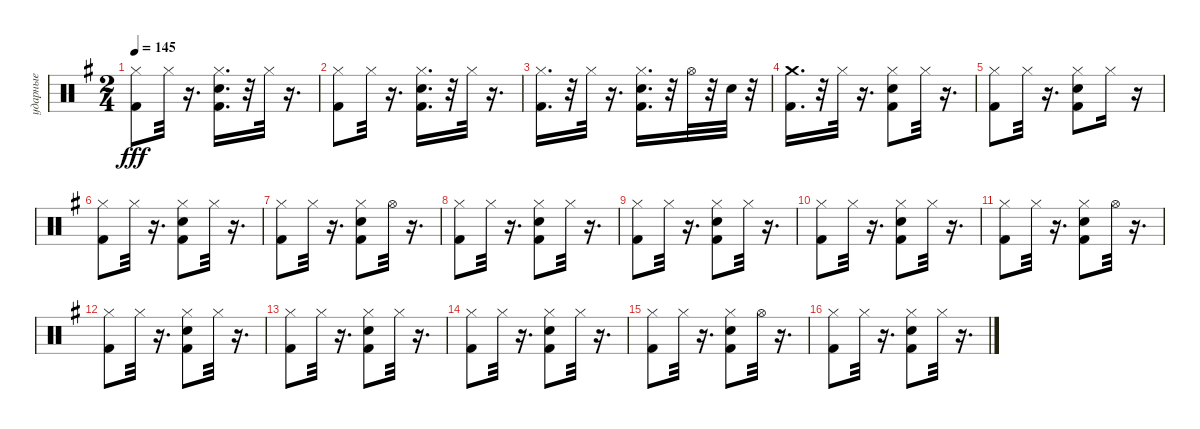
\track ("ударные" "ударные") {instrument percussion}
\staff {score}
\articulation defaults
\ts (2 4)
\tempo 145
\clef neutral
\ks eminor
("Kick (hit) 2" "Hi-Hat (closed)").8{dy fff} "Hi-Hat (closed)".32 r.16{d} ("Kick (hit) 2" "Hi-Hat (closed)" "Snare (hit) 2").16{d} r.32 "Hi-Hat (closed)".32 r.16{d} |
("Kick (hit) 2" "Hi-Hat (closed)").8 "Hi-Hat (closed)".32 r.16{d} ("Snare (hit) 2" "Kick (hit) 2" "Hi-Hat (closed)").16{d} r.32 "Hi-Hat (closed)".32 r.16{d} |
("Kick (hit) 2" "Hi-Hat (closed)").16{d} r.32 "Hi-Hat (closed)".32 r.16{d} ("Snare (hit) 2" "Kick (hit) 2" "Hi-Hat (closed)").16{d} r.32 "Hi-Hat (open)".32 r.32 "Snare (hit) 2".32 r.32 |
("Kick (hit) 2" "Crash medium (hit)").16{d} r.32 "Hi-Hat (closed)".32 r.16{d} ("Snare (hit) 2" "Hi-Hat (closed)" "Kick (hit) 2").8 "Hi-Hat (closed)".32 r.16{d} |
("Kick (hit) 2" "Hi-Hat (closed)").8 "Hi-Hat (closed)".32 r.16{d} ("Snare (hit) 2" "Kick (hit) 2" "Hi-Hat (closed)").8 "Hi-Hat (closed)".16 r.16 |
("Kick (hit) 2" "Hi-Hat (closed)").8 "Hi-Hat (closed)".32 r.16{d} ("Snare (hit) 2" "Kick (hit) 2" "Hi-Hat (closed)").8 "Hi-Hat (closed)".32 r.16{d} |
("Kick (hit) 2" "Hi-Hat (closed)").8 "Hi-Hat (closed)".32 r.16{d} ("Kick (hit) 2" "Snare (hit) 2" "Hi-Hat (closed)").8 "Hi-Hat (open)".32 r.16{d} |
("Kick (hit) 2" "Hi-Hat (closed)").8 "Hi-Hat (closed)".32 r.16{d} ("Snare (hit) 2" "Kick (hit) 2" "Hi-Hat (closed)").8 "Hi-Hat (closed)".32 r.16{d} |
("Kick (hit) 2" "Hi-Hat (closed)").8 "Hi-Hat (closed)".32 r.16{d} ("Snare (hit) 2" "Kick (hit) 2" "Hi-Hat (closed)").8 "Hi-Hat (closed)".32 r.16{d} |
("Kick (hit) 2" "Hi-Hat (closed)").8 "Hi-Hat (closed)".32 r.16{d} ("Snare (hit) 2" "Kick (hit) 2" "Hi-Hat (closed)").8 "Hi-Hat (closed)".32 r.16{d} |
("Kick (hit) 2" "Hi-Hat (closed)").8 "Hi-Hat (closed)".32 r.16{d} ("Snare (hit) 2" "Kick (hit) 2" "Hi-Hat (closed)").8 "Hi-Hat (open)".32 r.16{d} |
("Kick (hit) 2" "Hi-Hat (closed)").8 "Hi-Hat (closed)".32 r.16{d} ("Snare (hit) 2" "Kick (hit) 2" "Hi-Hat (closed)").8 "Hi-Hat (closed)".32 r.16{d} |
("Kick (hit) 2" "Hi-Hat (closed)").8 "Hi-Hat (closed)".32 r.16{d} ("Snare (hit) 2" "Kick (hit) 2" "Hi-Hat (closed)").8 "Hi-Hat (closed)".32 r.16{d} |
("Kick (hit) 2" "Hi-Hat (closed)").8 "Hi-Hat (closed)".32 r.16{d} ("Snare (hit) 2" "Kick (hit) 2" "Hi-Hat (closed)").8 "Hi-Hat (closed)".32 r.16{d} |
("Kick (hit) 2" "Hi-Hat (closed)").8 "Hi-Hat (closed)".32 r.16{d} ("Snare (hit) 2" "Kick (hit) 2" "Hi-Hat (closed)").8 "Hi-Hat (open)".32 r.16{d} |
("Kick (hit) 2" "Hi-Hat (closed)").8 "Hi-Hat (closed)".32 r.16{d} ("Hi-Hat (closed)" "Snare (hit) 2" "Kick (hit) 2").8 "Hi-Hat (closed)".32 r.16{d}
